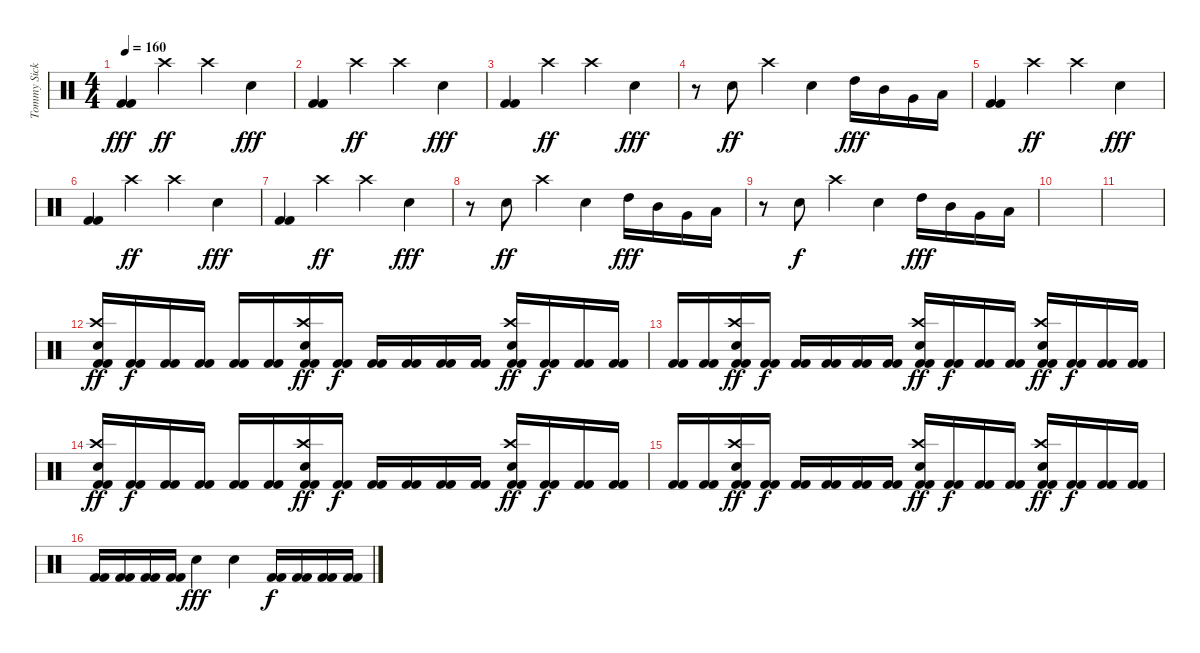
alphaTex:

\track ("Tommy Sickles" "Tommy Sick") {instrument percussion}
\staff {score}
\articulation defaults
\ts (4 4)
\tempo 160
\clef neutral
\ks c
("Kick (hit) 2" "Kick (hit) 2").4{dy fff} "Crash high (hit)".4{dy ff} "Crash high (hit)".4 "Electric Snare (hit)".4{dy fff} |
("Kick (hit) 2" "Kick (hit) 2").4 "Crash high (hit)".4{dy ff} "Crash high (hit)".4 "Electric Snare (hit)".4{dy fff} |
("Kick (hit) 2" "Kick (hit) 2").4 "Crash high (hit)".4{dy ff} "Crash high (hit)".4 "Electric Snare (hit)".4{dy fff} |
r.8 "Electric Snare (hit)".8{dy ff} "Crash high (hit)".4 "Electric Snare (hit)".4 "High Tom (hit)".16{dy fff} "Mid Tom (hit)".16 "Very Low Tom (hit)".16 "Low Floor Tom (hit)".16 |
("Kick (hit) 2" "Kick (hit) 2").4 "Crash high (hit)".4{dy ff} "Crash high (hit)".4 "Electric Snare (hit)".4{dy fff} |
("Kick (hit) 2" "Kick (hit) 2").4 "Crash high (hit)".4{dy ff} "Crash high (hit)".4 "Electric Snare (hit)".4{dy fff} |
("Kick (hit) 2" "Kick (hit) 2").4 "Crash high (hit)".4{dy ff} "Crash high (hit)".4 "Electric Snare (hit)".4{dy fff} |
r.8 "Electric Snare (hit)".8{dy ff} "Crash high (hit)".4 "Electric Snare (hit)".4 "High Tom (hit)".16{dy fff} "Mid Tom (hit)".16 "Very Low Tom (hit)".16 "Low Floor Tom (hit)".16 |
r.8 "Electric Snare (hit)".8{dy f} "Crash high (hit)".4 "Electric Snare (hit)".4 "High Tom (hit)".16{dy fff} "Mid Tom (hit)".16 "Very Low Tom (hit)".16 "Low Floor Tom (hit)".16 |
|
|
("Crash high (hit)" "Kick (hit) 2" "Kick (hit) 2" "Electric Snare (hit)").16{dy ff} ("Kick (hit) 2" "Kick (hit) 2").16{dy f} ("Kick (hit) 2" "Kick (hit) 2").16 ("Kick (hit) 2" "Kick (hit) 2").16 ("Kick (hit) 2" "Kick (hit) 2").16 ("Kick (hit) 2" "Kick (hit) 2").16 ("Crash high (hit)" "Kick (hit) 2" "Kick (hit) 2" "Electric Snare (hit)").16{dy ff} ("Kick (hit) 2" "Kick (hit) 2").16{dy f} ("Kick (hit) 2" "Kick (hit) 2").16 ("Kick (hit) 2" "Kick (hit) 2").16 ("Kick (hit) 2" "Kick (hit) 2").16 ("Kick (hit) 2" "Kick (hit) 2").16 ("Crash high (hit)" "Kick (hit) 2" "Kick (hit) 2" "Electric Snare (hit)").16{dy ff} ("Kick (hit) 2" "Kick (hit) 2").16{dy f} ("Kick (hit) 2" "Kick (hit) 2").16 ("Kick (hit) 2" "Kick (hit) 2").16 |
("Kick (hit) 2" "Kick (hit) 2").16 ("Kick (hit) 2" "Kick (hit) 2").16 ("Crash high (hit)" "Kick (hit) 2" "Kick (hit) 2" "Electric Snare (hit)").16{dy ff} ("Kick (hit) 2" "Kick (hit) 2").16{dy f} ("Kick (hit) 2" "Kick (hit) 2").16 ("Kick (hit) 2" "Kick (hit) 2").16 ("Kick (hit) 2" "Kick (hit) 2").16 ("Kick (hit) 2" "Kick (hit) 2").16 ("Crash high (hit)" "Kick (hit) 2" "Kick (hit) 2" "Electric Snare (hit)").16{dy ff} ("Kick (hit) 2" "Kick (hit) 2").16{dy f} ("Kick (hit) 2" "Kick (hit) 2").16 ("Kick (hit) 2" "Kick (hit) 2").16 ("Crash high (hit)" "Kick (hit) 2" "Kick (hit) 2" "Electric Snare (hit)").16{dy ff} ("Kick (hit) 2" "Kick (hit) 2").16{dy f} ("Kick (hit) 2" "Kick (hit) 2").16 ("Kick (hit) 2" "Kick (hit) 2").16 |
("Crash high (hit)" "Kick (hit) 2" "Kick (hit) 2" "Electric Snare (hit)").16{dy ff} ("Kick (hit) 2" "Kick (hit) 2").16{dy f} ("Kick (hit) 2" "Kick (hit) 2").16 ("Kick (hit) 2" "Kick (hit) 2").16 ("Kick (hit) 2" "Kick (hit) 2").16 ("Kick (hit) 2" "Kick (hit) 2").16 ("Crash high (hit)" "Kick (hit) 2" "Kick (hit) 2" "Electric Snare (hit)").16{dy ff} ("Kick (hit) 2" "Kick (hit) 2").16{dy f} ("Kick (hit) 2" "Kick (hit) 2").16 ("Kick (hit) 2" "Kick (hit) 2").16 ("Kick (hit) 2" "Kick (hit) 2").16 ("Kick (hit) 2" "Kick (hit) 2").16 ("Crash high (hit)" "Kick (hit) 2" "Kick (hit) 2" "Electric Snare (hit)").16{dy ff} ("Kick (hit) 2" "Kick (hit) 2").16{dy f} ("Kick (hit) 2" "Kick (hit) 2").16 ("Kick (hit) 2" "Kick (hit) 2").16 |
("Kick (hit) 2" "Kick (hit) 2").16 ("Kick (hit) 2" "Kick (hit) 2").16 ("Crash high (hit)" "Kick (hit) 2" "Kick (hit) 2" "Electric Snare (hit)").16{dy ff} ("Kick (hit) 2" "Kick (hit) 2").16{dy f} ("Kick (hit) 2" "Kick (hit) 2").16 ("Kick (hit) 2" "Kick (hit) 2").16 ("Kick (hit) 2" "Kick (hit) 2").16 ("Kick (hit) 2" "Kick (hit) 2").16 ("Crash high (hit)" "Kick (hit) 2" "Kick (hit) 2" "Electric Snare (hit)").16{dy ff} ("Kick (hit) 2" "Kick (hit) 2").16{dy f} ("Kick (hit) 2" "Kick (hit) 2").16 ("Kick (hit) 2" "Kick (hit) 2").16 ("Crash high (hit)" "Kick (hit) 2" "Kick (hit) 2" "Electric Snare (hit)").16{dy ff} ("Kick (hit) 2" "Kick (hit) 2").16{dy f} ("Kick (hit) 2" "Kick (hit) 2").16 ("Kick (hit) 2" "Kick (hit) 2").16 |
("Kick (hit) 2" "Kick (hit) 2").16 ("Kick (hit) 2" "Kick (hit) 2").16 ("Kick (hit) 2" "Kick (hit) 2").16 ("Kick (hit) 2" "Kick (hit) 2").16 "Electric Snare (hit)".4{dy fff} "Electric Snare (hit)".4 ("Kick (hit) 2" "Kick (hit) 2").16{dy f} ("Kick (hit) 2" "Kick (hit) 2").16 ("Kick (hit) 2" "Kick (hit) 2").16 ("Kick (hit) 2" "Kick (hit) 2").16
